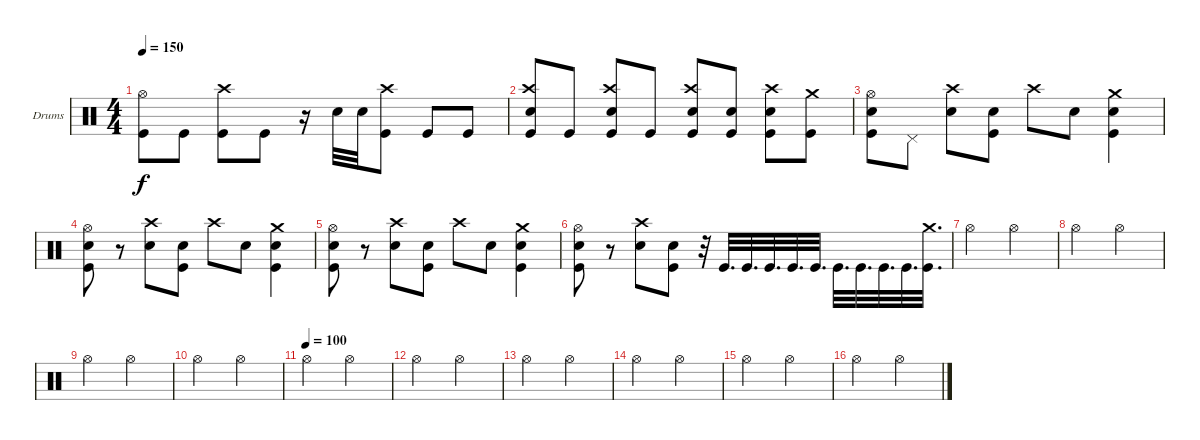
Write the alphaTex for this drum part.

\bracketExtendMode groupsimilarinstruments
\firstSystemTrackNameOrientation horizontal
\otherSystemsTrackNameOrientation horizontal
\track ("Drumkit" "Drums") {instrument percussion}
\staff {score}
\articulation defaults
\ts (4 4)
\tempo 150
\clef neutral
\ks c
("Hi-Hat (open)" "Kick (hit)").8{dy f} "Kick (hit)".8 ("Crash high (hit)" "Kick (hit)").8 "Kick (hit)".8 r.16 "Snare (hit) 2".32 "Snare (hit) 2".32 ("Crash high (hit)" "Kick (hit)").8 "Kick (hit)".8 "Kick (hit)".8 |
("Crash high (hit)" "Snare (hit) 2" "Kick (hit)").8 "Kick (hit)".8 ("Crash high (hit)" "Snare (hit) 2" "Kick (hit)").8 "Kick (hit)".8 ("Crash high (hit)" "Snare (hit) 2" "Kick (hit)").8 ("Snare (hit) 2" "Kick (hit)").8 ("Crash high (hit)" "Snare (hit) 2" "Kick (hit)").8 ("Crash medium (hit)" "Kick (hit)").8 |
("Hi-Hat (open)" "Snare (hit) 2" "Kick (hit)").8 "Pedal Hi-Hat (hit)".8 ("Crash high (hit)" "Snare (hit) 2").8 ("Snare (hit) 2" "Kick (hit)").8 "Crash high (hit)".8 "Snare (hit) 2".8 ("Crash medium (hit)" "Snare (hit) 2" "Kick (hit)").4 |
("Hi-Hat (open)" "Snare (hit) 2" "Kick (hit)").8 r.8 ("Crash high (hit)" "Snare (hit) 2").8 ("Snare (hit) 2" "Kick (hit)").8 "Crash high (hit)".8 "Snare (hit) 2".8 ("Crash medium (hit)" "Snare (hit) 2" "Kick (hit)").4 |
("Hi-Hat (open)" "Snare (hit) 2" "Kick (hit)").8 r.8 ("Crash high (hit)" "Snare (hit) 2").8 ("Snare (hit) 2" "Kick (hit)").8 "Crash high (hit)".8 "Snare (hit) 2".8 ("Crash medium (hit)" "Snare (hit) 2" "Kick (hit)").4 |
("Hi-Hat (open)" "Snare (hit) 2" "Kick (hit)").8 r.8 ("Crash high (hit)" "Snare (hit) 2").8 ("Snare (hit) 2" "Kick (hit)").8 r.32 "Kick (hit)".32{d} "Kick (hit)".32{d} "Kick (hit)".32{d} "Kick (hit)".32{d} "Kick (hit)".32{d} "Kick (hit)".32{d} "Kick (hit)".32{d} "Kick (hit)".32{d} "Kick (hit)".32{d} ("Crash medium (hit)" "Kick (hit)").32{d} |
"Hi-Hat (open)".2 "Hi-Hat (open)".2 |
"Hi-Hat (open)".2 "Hi-Hat (open)".2 |
"Hi-Hat (open)".2 "Hi-Hat (open)".2 |
"Hi-Hat (open)".2 "Hi-Hat (open)".2 |
\tempo (100)
"Hi-Hat (open)".2 "Hi-Hat (open)".2 |
"Hi-Hat (open)".2 "Hi-Hat (open)".2 |
"Hi-Hat (open)".2 "Hi-Hat (open)".2 |
\scale
0.169925 "Hi-Hat (open)".2 "Hi-Hat (open)".2 |
\scale
0.138346 "Hi-Hat (open)".2 "Hi-Hat (open)".2 |
\scale
0.138346 "Hi-Hat (open)".2 "Hi-Hat (open)".2
